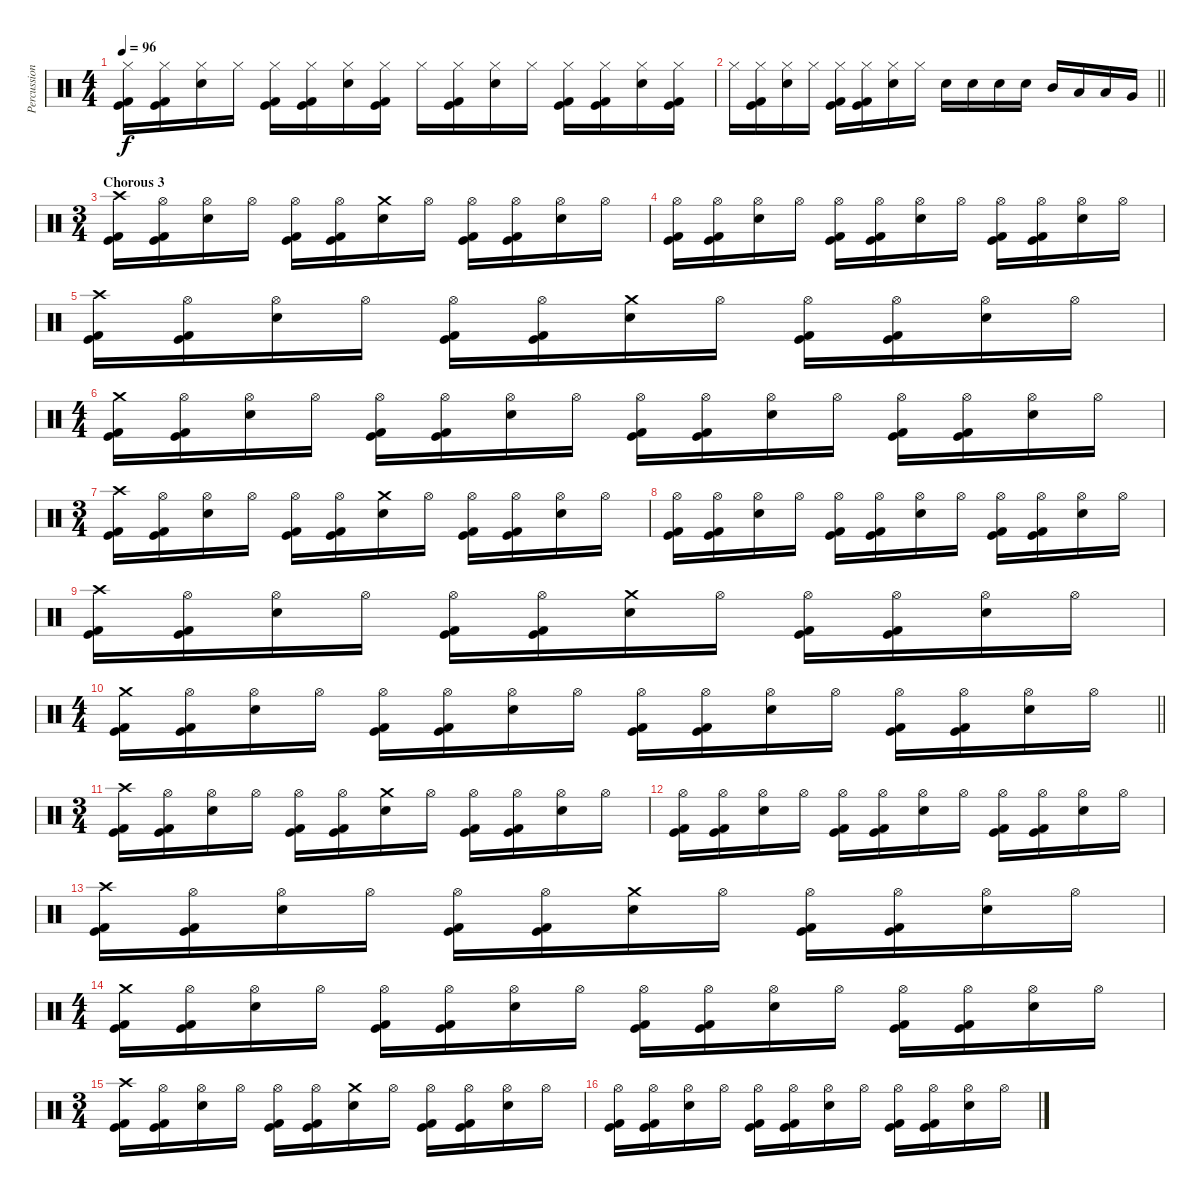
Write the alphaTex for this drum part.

\track ("Percussion" "Percussion") {instrument percussion}
\staff {score}
\articulation defaults
\ts (4 4)
\tempo 96
\clef neutral
\ks c
("Hi-Hat (closed)" "Kick (hit)" "Kick (hit) 2").16{dy f} ("Hi-Hat (closed)" "Kick (hit)" "Kick (hit) 2").16 ("Hi-Hat (closed)" "Electric Snare (hit)").16 "Hi-Hat (closed)".16 ("Hi-Hat (closed)" "Kick (hit)" "Kick (hit) 2").16 ("Hi-Hat (closed)" "Kick (hit)" "Kick (hit) 2").16 ("Hi-Hat (closed)" "Electric Snare (hit)").16 ("Hi-Hat (closed)" "Kick (hit)" "Kick (hit) 2").16 "Hi-Hat (closed)".16 ("Hi-Hat (closed)" "Kick (hit)" "Kick (hit) 2").16 ("Hi-Hat (closed)" "Electric Snare (hit)").16 "Hi-Hat (closed)".16 ("Hi-Hat (closed)" "Kick (hit)" "Kick (hit) 2").16 ("Hi-Hat (closed)" "Kick (hit)" "Kick (hit) 2").16 ("Hi-Hat (closed)" "Electric Snare (hit)").16 ("Hi-Hat (closed)" "Kick (hit)" "Kick (hit) 2").16 |
\barLineRight lightlight "Hi-Hat (closed)".16
("Hi-Hat (closed)" "Kick (hit)" "Kick (hit) 2").16 ("Hi-Hat (closed)" "Electric Snare (hit)").16 "Hi-Hat (closed)".16 ("Hi-Hat (closed)" "Kick (hit)" "Kick (hit) 2").16 ("Hi-Hat (closed)" "Kick (hit)" "Kick (hit) 2").16 ("Hi-Hat (closed)" "Electric Snare (hit)").16 "Hi-Hat (closed)".16 "Electric Snare (hit)".16 "Electric Snare (hit)".16 "Electric Snare (hit)".16 "Electric Snare (hit)".16 "Mid Tom (hit)".16 "Low Tom (hit)".16 "Low Tom (hit)".16 "Very Low Tom (hit)".16 |
\ts (3 4)
\section ("" "Chorous 3")
("Crash high (hit)" "Kick (hit)" "Kick (hit) 2").16 ("Hi-Hat (open)" "Kick (hit)" "Kick (hit) 2").16 ("Hi-Hat (open)" "Electric Snare (hit)").16 "Hi-Hat (open)".16 ("Hi-Hat (open)" "Kick (hit)" "Kick (hit) 2").16 ("Hi-Hat (open)" "Kick (hit)" "Kick (hit) 2").16 ("Crash medium (hit)" "Electric Snare (hit)").16 "Hi-Hat (open)".16 ("Hi-Hat (open)" "Kick (hit)" "Kick (hit) 2").16 ("Hi-Hat (open)" "Kick (hit)" "Kick (hit) 2").16 ("Hi-Hat (open)" "Electric Snare (hit)").16 "Hi-Hat (open)".16 |
("Hi-Hat (open)" "Kick (hit)" "Kick (hit) 2").16 ("Hi-Hat (open)" "Kick (hit)" "Kick (hit) 2").16 ("Hi-Hat (open)" "Electric Snare (hit)").16 "Hi-Hat (open)".16 ("Hi-Hat (open)" "Kick (hit)" "Kick (hit) 2").16 ("Hi-Hat (open)" "Kick (hit)" "Kick (hit) 2").16 ("Hi-Hat (open)" "Electric Snare (hit)").16 "Hi-Hat (open)".16 ("Hi-Hat (open)" "Kick (hit)" "Kick (hit) 2").16 ("Hi-Hat (open)" "Kick (hit)" "Kick (hit) 2").16 ("Hi-Hat (open)" "Electric Snare (hit)").16 "Hi-Hat (open)".16 |
("Crash high (hit)" "Kick (hit)" "Kick (hit) 2").16 ("Hi-Hat (open)" "Kick (hit)" "Kick (hit) 2").16 ("Hi-Hat (open)" "Electric Snare (hit)").16 "Hi-Hat (open)".16 ("Hi-Hat (open)" "Kick (hit)" "Kick (hit) 2").16 ("Hi-Hat (open)" "Kick (hit)" "Kick (hit) 2").16 ("Crash medium (hit)" "Electric Snare (hit)").16 "Hi-Hat (open)".16 ("Hi-Hat (open)" "Kick (hit)" "Kick (hit) 2").16 ("Hi-Hat (open)" "Kick (hit)" "Kick (hit) 2").16 ("Hi-Hat (open)" "Electric Snare (hit)").16 "Hi-Hat (open)".16 |
\ts (4 4)
("Crash medium (hit)" "Kick (hit)" "Kick (hit) 2").16 ("Hi-Hat (open)" "Kick (hit)" "Kick (hit) 2").16 ("Hi-Hat (open)" "Electric Snare (hit)").16 "Hi-Hat (open)".16 ("Hi-Hat (open)" "Kick (hit)" "Kick (hit) 2").16 ("Hi-Hat (open)" "Kick (hit)" "Kick (hit) 2").16 ("Hi-Hat (open)" "Electric Snare (hit)").16 "Hi-Hat (open)".16 ("Hi-Hat (open)" "Kick (hit)" "Kick (hit) 2").16 ("Hi-Hat (open)" "Kick (hit)" "Kick (hit) 2").16 ("Hi-Hat (open)" "Electric Snare (hit)").16 "Hi-Hat (open)".16 ("Hi-Hat (open)" "Kick (hit)" "Kick (hit) 2").16 ("Hi-Hat (open)" "Kick (hit)" "Kick (hit) 2").16 ("Hi-Hat (open)" "Electric Snare (hit)").16 "Hi-Hat (open)".16 |
\ts (3 4)
("Crash high (hit)" "Kick (hit)" "Kick (hit) 2").16 ("Hi-Hat (open)" "Kick (hit)" "Kick (hit) 2").16 ("Hi-Hat (open)" "Electric Snare (hit)").16 "Hi-Hat (open)".16 ("Hi-Hat (open)" "Kick (hit)" "Kick (hit) 2").16 ("Hi-Hat (open)" "Kick (hit)" "Kick (hit) 2").16 ("Crash medium (hit)" "Electric Snare (hit)").16 "Hi-Hat (open)".16 ("Hi-Hat (open)" "Kick (hit)" "Kick (hit) 2").16 ("Hi-Hat (open)" "Kick (hit)" "Kick (hit) 2").16 ("Hi-Hat (open)" "Electric Snare (hit)").16 "Hi-Hat (open)".16 |
("Hi-Hat (open)" "Kick (hit)" "Kick (hit) 2").16 ("Hi-Hat (open)" "Kick (hit)" "Kick (hit) 2").16 ("Hi-Hat (open)" "Electric Snare (hit)").16 "Hi-Hat (open)".16 ("Hi-Hat (open)" "Kick (hit)" "Kick (hit) 2").16 ("Hi-Hat (open)" "Kick (hit)" "Kick (hit) 2").16 ("Hi-Hat (open)" "Electric Snare (hit)").16 "Hi-Hat (open)".16 ("Hi-Hat (open)" "Kick (hit)" "Kick (hit) 2").16 ("Hi-Hat (open)" "Kick (hit)" "Kick (hit) 2").16 ("Hi-Hat (open)" "Electric Snare (hit)").16 "Hi-Hat (open)".16 |
("Crash high (hit)" "Kick (hit)" "Kick (hit) 2").16 ("Hi-Hat (open)" "Kick (hit)" "Kick (hit) 2").16 ("Hi-Hat (open)" "Electric Snare (hit)").16 "Hi-Hat (open)".16 ("Hi-Hat (open)" "Kick (hit)" "Kick (hit) 2").16 ("Hi-Hat (open)" "Kick (hit)" "Kick (hit) 2").16 ("Crash medium (hit)" "Electric Snare (hit)").16 "Hi-Hat (open)".16 ("Hi-Hat (open)" "Kick (hit)" "Kick (hit) 2").16 ("Hi-Hat (open)" "Kick (hit)" "Kick (hit) 2").16 ("Hi-Hat (open)" "Electric Snare (hit)").16 "Hi-Hat (open)".16 |
\ts (4 4)
\barLineRight lightlight
("Crash medium (hit)" "Kick (hit)" "Kick (hit) 2").16 ("Hi-Hat (open)" "Kick (hit)" "Kick (hit) 2").16 ("Hi-Hat (open)" "Electric Snare (hit)").16 "Hi-Hat (open)".16 ("Hi-Hat (open)" "Kick (hit)" "Kick (hit) 2").16 ("Hi-Hat (open)" "Kick (hit)" "Kick (hit) 2").16 ("Hi-Hat (open)" "Electric Snare (hit)").16 "Hi-Hat (open)".16 ("Hi-Hat (open)" "Kick (hit)" "Kick (hit) 2").16 ("Hi-Hat (open)" "Kick (hit)" "Kick (hit) 2").16 ("Hi-Hat (open)" "Electric Snare (hit)").16 "Hi-Hat (open)".16 ("Hi-Hat (open)" "Kick (hit)" "Kick (hit) 2").16 ("Hi-Hat (open)" "Kick (hit)" "Kick (hit) 2").16 ("Hi-Hat (open)" "Electric Snare (hit)").16 "Hi-Hat (open)".16 |
\ts (3 4)
\section ("" "")
("Crash high (hit)" "Kick (hit)" "Kick (hit) 2").16 ("Hi-Hat (open)" "Kick (hit)" "Kick (hit) 2").16 ("Hi-Hat (open)" "Electric Snare (hit)").16 "Hi-Hat (open)".16 ("Hi-Hat (open)" "Kick (hit)" "Kick (hit) 2").16 ("Hi-Hat (open)" "Kick (hit)" "Kick (hit) 2").16 ("Crash medium (hit)" "Electric Snare (hit)").16 "Hi-Hat (open)".16 ("Hi-Hat (open)" "Kick (hit)" "Kick (hit) 2").16 ("Hi-Hat (open)" "Kick (hit)" "Kick (hit) 2").16 ("Hi-Hat (open)" "Electric Snare (hit)").16 "Hi-Hat (open)".16 |
("Hi-Hat (open)" "Kick (hit)" "Kick (hit) 2").16 ("Hi-Hat (open)" "Kick (hit)" "Kick (hit) 2").16 ("Hi-Hat (open)" "Electric Snare (hit)").16 "Hi-Hat (open)".16 ("Hi-Hat (open)" "Kick (hit)" "Kick (hit) 2").16 ("Hi-Hat (open)" "Kick (hit)" "Kick (hit) 2").16 ("Hi-Hat (open)" "Electric Snare (hit)").16 "Hi-Hat (open)".16 ("Hi-Hat (open)" "Kick (hit)" "Kick (hit) 2").16 ("Hi-Hat (open)" "Kick (hit)" "Kick (hit) 2").16 ("Hi-Hat (open)" "Electric Snare (hit)").16 "Hi-Hat (open)".16 |
("Crash high (hit)" "Kick (hit)" "Kick (hit) 2").16 ("Hi-Hat (open)" "Kick (hit)" "Kick (hit) 2").16 ("Hi-Hat (open)" "Electric Snare (hit)").16 "Hi-Hat (open)".16 ("Hi-Hat (open)" "Kick (hit)" "Kick (hit) 2").16 ("Hi-Hat (open)" "Kick (hit)" "Kick (hit) 2").16 ("Crash medium (hit)" "Electric Snare (hit)").16 "Hi-Hat (open)".16 ("Hi-Hat (open)" "Kick (hit)" "Kick (hit) 2").16 ("Hi-Hat (open)" "Kick (hit)" "Kick (hit) 2").16 ("Hi-Hat (open)" "Electric Snare (hit)").16 "Hi-Hat (open)".16 |
\ts (4 4)
("Crash medium (hit)" "Kick (hit)" "Kick (hit) 2").16 ("Hi-Hat (open)" "Kick (hit)" "Kick (hit) 2").16 ("Hi-Hat (open)" "Electric Snare (hit)").16 "Hi-Hat (open)".16 ("Hi-Hat (open)" "Kick (hit)" "Kick (hit) 2").16 ("Hi-Hat (open)" "Kick (hit)" "Kick (hit) 2").16 ("Hi-Hat (open)" "Electric Snare (hit)").16 "Hi-Hat (open)".16 ("Hi-Hat (open)" "Kick (hit)" "Kick (hit) 2").16 ("Hi-Hat (open)" "Kick (hit)" "Kick (hit) 2").16 ("Hi-Hat (open)" "Electric Snare (hit)").16 "Hi-Hat (open)".16 ("Hi-Hat (open)" "Kick (hit)" "Kick (hit) 2").16 ("Hi-Hat (open)" "Kick (hit)" "Kick (hit) 2").16 ("Hi-Hat (open)" "Electric Snare (hit)").16 "Hi-Hat (open)".16 |
\ts (3 4)
("Crash high (hit)" "Kick (hit)" "Kick (hit) 2").16 ("Hi-Hat (open)" "Kick (hit)" "Kick (hit) 2").16 ("Hi-Hat (open)" "Electric Snare (hit)").16 "Hi-Hat (open)".16 ("Hi-Hat (open)" "Kick (hit)" "Kick (hit) 2").16 ("Hi-Hat (open)" "Kick (hit)" "Kick (hit) 2").16 ("Crash medium (hit)" "Electric Snare (hit)").16 "Hi-Hat (open)".16 ("Hi-Hat (open)" "Kick (hit)" "Kick (hit) 2").16 ("Hi-Hat (open)" "Kick (hit)" "Kick (hit) 2").16 ("Hi-Hat (open)" "Electric Snare (hit)").16 "Hi-Hat (open)".16 |
("Hi-Hat (open)" "Kick (hit)" "Kick (hit) 2").16 ("Hi-Hat (open)" "Kick (hit)" "Kick (hit) 2").16 ("Hi-Hat (open)" "Electric Snare (hit)").16 "Hi-Hat (open)".16 ("Hi-Hat (open)" "Kick (hit)" "Kick (hit) 2").16 ("Hi-Hat (open)" "Kick (hit)" "Kick (hit) 2").16 ("Hi-Hat (open)" "Electric Snare (hit)").16 "Hi-Hat (open)".16 ("Hi-Hat (open)" "Kick (hit)" "Kick (hit) 2").16 ("Hi-Hat (open)" "Kick (hit)" "Kick (hit) 2").16 ("Hi-Hat (open)" "Electric Snare (hit)").16 "Hi-Hat (open)".16
